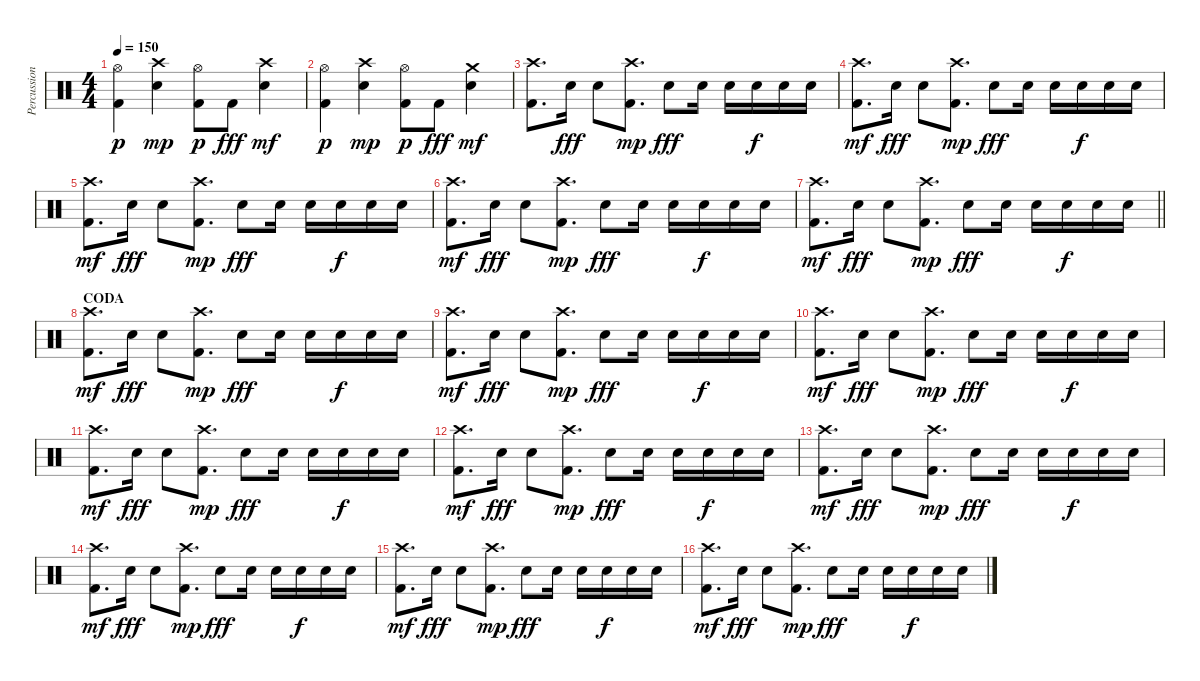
\track ("Percussions" "Percussion") {instrument percussion}
\staff {score}
\articulation defaults
\ts (4 4)
\tempo 150
\clef neutral
\ks c
("Kick (hit) 2" "Hi-Hat (open)").4{dy p} ("Snare (hit) 2" "Crash high (hit)").4{dy mp} ("Kick (hit) 2" "Hi-Hat (open)").8{dy p} "Kick (hit) 2".8{dy fff} ("Snare (hit) 2" "Crash high (hit)").4{dy mf} |
("Kick (hit) 2" "Hi-Hat (open)").4{dy p} ("Snare (hit) 2" "Crash high (hit)").4{dy mp} ("Kick (hit) 2" "Hi-Hat (open)").8{dy p} "Kick (hit) 2".8{dy fff} ("Snare (hit) 2" "Crash medium (hit)").4{dy mf} |
("Kick (hit) 2" "Crash high (hit)").8{d} "Snare (hit) 2".16{dy fff} "Snare (hit) 2".8 ("Kick (hit) 2" "Crash high (hit)").8{d dy mp} "Snare (hit) 2".8{dy fff} "Snare (hit) 2".16 "Snare (hit) 2".16 "Snare (hit) 2".16{dy f} "Snare (hit) 2".16 "Snare (hit) 2".16 |
("Kick (hit) 2" "Crash high (hit)").8{d dy mf} "Snare (hit) 2".16{dy fff} "Snare (hit) 2".8 ("Kick (hit) 2" "Crash high (hit)").8{d dy mp} "Snare (hit) 2".8{dy fff} "Snare (hit) 2".16 "Snare (hit) 2".16 "Snare (hit) 2".16{dy f} "Snare (hit) 2".16 "Snare (hit) 2".16 |
("Kick (hit) 2" "Crash high (hit)").8{d dy mf} "Snare (hit) 2".16{dy fff} "Snare (hit) 2".8 ("Kick (hit) 2" "Crash high (hit)").8{d dy mp} "Snare (hit) 2".8{dy fff} "Snare (hit) 2".16 "Snare (hit) 2".16 "Snare (hit) 2".16{dy f} "Snare (hit) 2".16 "Snare (hit) 2".16 |
("Kick (hit) 2" "Crash high (hit)").8{d dy mf} "Snare (hit) 2".16{dy fff} "Snare (hit) 2".8 ("Kick (hit) 2" "Crash high (hit)").8{d dy mp} "Snare (hit) 2".8{dy fff} "Snare (hit) 2".16 "Snare (hit) 2".16 "Snare (hit) 2".16{dy f} "Snare (hit) 2".16 "Snare (hit) 2".16 |
\barLineRight lightlight
("Kick (hit) 2" "Crash high (hit)").8{d dy mf} "Snare (hit) 2".16{dy fff} "Snare (hit) 2".8 ("Kick (hit) 2" "Crash high (hit)").8{d dy mp} "Snare (hit) 2".8{dy fff} "Snare (hit) 2".16 "Snare (hit) 2".16 "Snare (hit) 2".16{dy f} "Snare (hit) 2".16 "Snare (hit) 2".16 |
\section ("" "CODA")
("Kick (hit) 2" "Crash high (hit)").8{d dy mf} "Snare (hit) 2".16{dy fff} "Snare (hit) 2".8 ("Kick (hit) 2" "Crash high (hit)").8{d dy mp} "Snare (hit) 2".8{dy fff} "Snare (hit) 2".16 "Snare (hit) 2".16 "Snare (hit) 2".16{dy f} "Snare (hit) 2".16 "Snare (hit) 2".16 |
("Kick (hit) 2" "Crash high (hit)").8{d dy mf} "Snare (hit) 2".16{dy fff} "Snare (hit) 2".8 ("Kick (hit) 2" "Crash high (hit)").8{d dy mp} "Snare (hit) 2".8{dy fff} "Snare (hit) 2".16 "Snare (hit) 2".16 "Snare (hit) 2".16{dy f} "Snare (hit) 2".16 "Snare (hit) 2".16 |
("Kick (hit) 2" "Crash high (hit)").8{d dy mf} "Snare (hit) 2".16{dy fff} "Snare (hit) 2".8 ("Kick (hit) 2" "Crash high (hit)").8{d dy mp} "Snare (hit) 2".8{dy fff} "Snare (hit) 2".16 "Snare (hit) 2".16 "Snare (hit) 2".16{dy f} "Snare (hit) 2".16 "Snare (hit) 2".16 |
("Kick (hit) 2" "Crash high (hit)").8{d dy mf} "Snare (hit) 2".16{dy fff} "Snare (hit) 2".8 ("Kick (hit) 2" "Crash high (hit)").8{d dy mp} "Snare (hit) 2".8{dy fff} "Snare (hit) 2".16 "Snare (hit) 2".16 "Snare (hit) 2".16{dy f} "Snare (hit) 2".16 "Snare (hit) 2".16 |
("Kick (hit) 2" "Crash high (hit)").8{d dy mf} "Snare (hit) 2".16{dy fff} "Snare (hit) 2".8 ("Kick (hit) 2" "Crash high (hit)").8{d dy mp} "Snare (hit) 2".8{dy fff} "Snare (hit) 2".16 "Snare (hit) 2".16 "Snare (hit) 2".16{dy f} "Snare (hit) 2".16 "Snare (hit) 2".16 |
("Kick (hit) 2" "Crash high (hit)").8{d dy mf} "Snare (hit) 2".16{dy fff} "Snare (hit) 2".8 ("Kick (hit) 2" "Crash high (hit)").8{d dy mp} "Snare (hit) 2".8{dy fff} "Snare (hit) 2".16 "Snare (hit) 2".16 "Snare (hit) 2".16{dy f} "Snare (hit) 2".16 "Snare (hit) 2".16 |
("Kick (hit) 2" "Crash high (hit)").8{d dy mf} "Snare (hit) 2".16{dy fff} "Snare (hit) 2".8 ("Kick (hit) 2" "Crash high (hit)").8{d dy mp} "Snare (hit) 2".8{dy fff} "Snare (hit) 2".16 "Snare (hit) 2".16 "Snare (hit) 2".16{dy f} "Snare (hit) 2".16 "Snare (hit) 2".16 |
("Kick (hit) 2" "Crash high (hit)").8{d dy mf} "Snare (hit) 2".16{dy fff} "Snare (hit) 2".8 ("Kick (hit) 2" "Crash high (hit)").8{d dy mp} "Snare (hit) 2".8{dy fff} "Snare (hit) 2".16 "Snare (hit) 2".16 "Snare (hit) 2".16{dy f} "Snare (hit) 2".16 "Snare (hit) 2".16 |
("Kick (hit) 2" "Crash high (hit)").8{d dy mf} "Snare (hit) 2".16{dy fff} "Snare (hit) 2".8 ("Kick (hit) 2" "Crash high (hit)").8{d dy mp} "Snare (hit) 2".8{dy fff} "Snare (hit) 2".16 "Snare (hit) 2".16 "Snare (hit) 2".16{dy f} "Snare (hit) 2".16 "Snare (hit) 2".16
